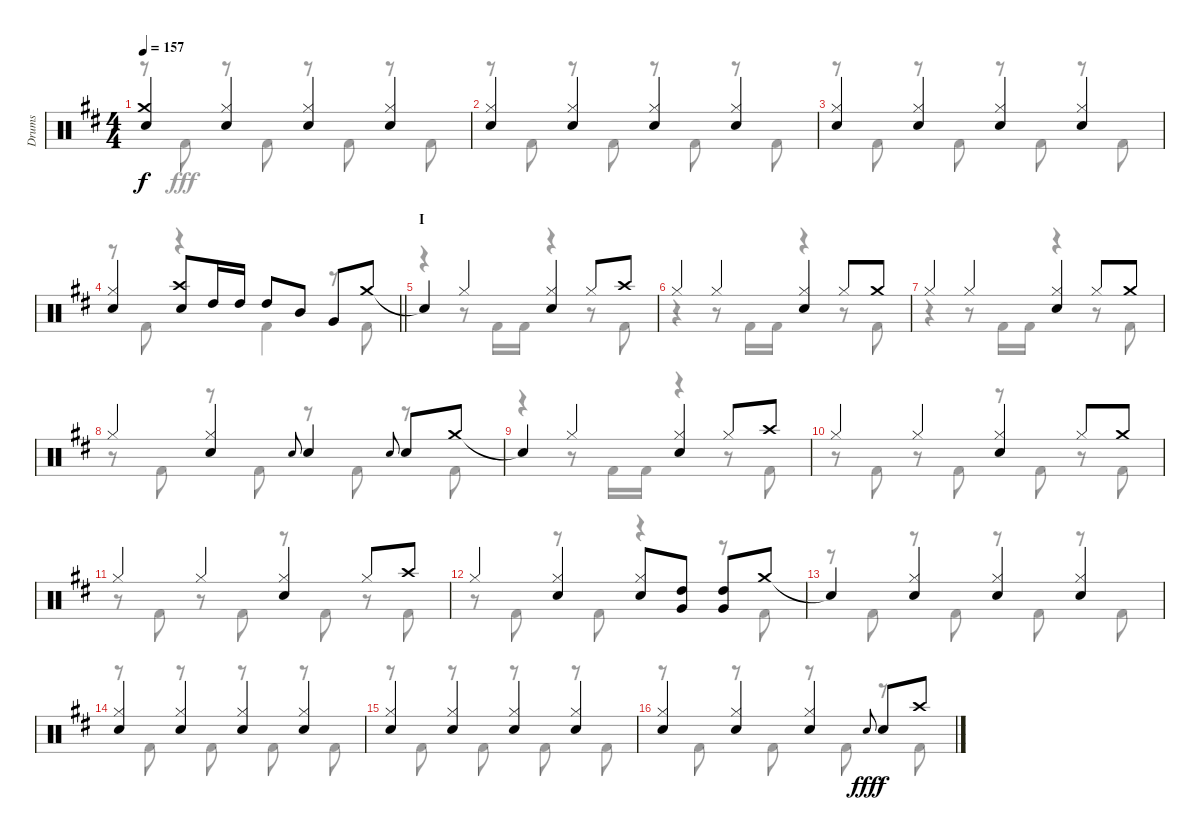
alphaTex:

\track ("Drums" "Drums") {instrument percussion}
\staff {score}
\articulation defaults
\voice
\ts (4 4)
\tempo 157
\clef neutral
\ks d
("Crash medium (hit)" "Snare (hit) 2").4{dy f} ("Hi-Hat (closed)" "Snare (hit) 2").4 ("Hi-Hat (closed)" "Snare (hit) 2").4 ("Hi-Hat (closed)" "Snare (hit) 2").4 |
("Hi-Hat (closed)" "Snare (hit) 2").4 ("Hi-Hat (closed)" "Snare (hit) 2").4 ("Hi-Hat (closed)" "Snare (hit) 2").4 ("Hi-Hat (closed)" "Snare (hit) 2").4 |
("Hi-Hat (closed)" "Snare (hit) 2").4 ("Hi-Hat (closed)" "Snare (hit) 2").4 ("Hi-Hat (closed)" "Snare (hit) 2").4 ("Hi-Hat (closed)" "Snare (hit) 2").4 |
\barLineRight lightlight
("Hi-Hat (closed)" "Snare (hit) 2").4 ("Crash high (hit)" "Snare (hit) 2").8 "High Tom (hit)".16 "High Tom (hit)".16 "High Tom (hit)".8 "Mid Tom (hit)".8 "Very Low Tom (hit)".8 "Crash medium (hit)".8 |
\section ("" "I")
"Snare (hit)"{t}.4 "Hi-Hat (closed)".4 ("Hi-Hat (closed)" "Snare (hit) 2").4 "Hi-Hat (closed)".8 "Crash high (hit)".8 |
"Hi-Hat (closed)".4 "Hi-Hat (closed)".4 ("Hi-Hat (closed)" "Snare (hit) 2").4 "Hi-Hat (closed)".8 "Crash medium (hit)".8 |
"Hi-Hat (closed)".4 "Hi-Hat (closed)".4 ("Hi-Hat (closed)" "Snare (hit) 2").4 "Hi-Hat (closed)".8 "Crash medium (hit)".8 |
"Hi-Hat (closed)".4 ("Hi-Hat (closed)" "Snare (hit) 2").4 "Snare (hit) 2".8{gr onbeat} "Snare (hit) 2".4 "Snare (hit) 2".8{gr onbeat} "Snare (hit) 2".8 "Crash medium (hit)".8 |
"Snare (hit)"{t}.4 "Hi-Hat (closed)".4 ("Hi-Hat (closed)" "Snare (hit) 2").4 "Hi-Hat (closed)".8 "Crash high (hit)".8 |
"Hi-Hat (closed)".4 "Hi-Hat (closed)".4 ("Hi-Hat (closed)" "Snare (hit) 2").4 "Hi-Hat (closed)".8 "Crash medium (hit)".8 |
"Hi-Hat (closed)".4 "Hi-Hat (closed)".4 ("Hi-Hat (closed)" "Snare (hit) 2").4 "Hi-Hat (closed)".8 "Crash high (hit)".8 |
"Hi-Hat (closed)".4 ("Hi-Hat (closed)" "Snare (hit) 2").4 ("Hi-Hat (closed)" "Snare (hit) 2").8 ("High Tom (hit)" "Very Low Tom (hit)").8 ("High Tom (hit)" "Very Low Tom (hit)").8 "Crash medium (hit)".8 |
"Snare (hit)"{t}.4 ("Hi-Hat (closed)" "Snare (hit) 2").4 ("Hi-Hat (closed)" "Snare (hit) 2").4 ("Hi-Hat (closed)" "Snare (hit) 2").4 |
("Hi-Hat (closed)" "Snare (hit) 2").4 ("Hi-Hat (closed)" "Snare (hit) 2").4 ("Hi-Hat (closed)" "Snare (hit) 2").4 ("Hi-Hat (closed)" "Snare (hit) 2").4 |
("Hi-Hat (closed)" "Snare (hit) 2").4 ("Hi-Hat (closed)" "Snare (hit) 2").4 ("Hi-Hat (closed)" "Snare (hit) 2").4 ("Hi-Hat (closed)" "Snare (hit) 2").4 |
("Hi-Hat (closed)" "Snare (hit) 2").4 ("Hi-Hat (closed)" "Snare (hit) 2").4 ("Hi-Hat (closed)" "Snare (hit) 2").4 "Snare (hit) 2".8{gr onbeat dy fff} "Snare (hit) 2".8{dy f} "Crash high (hit)".8
\voice
\clef neutral
\ottava regular
\simile none
\ks d
r.8{dy fff} "Kick (hit) 2".8 r.8 "Kick (hit) 2".8 r.8 "Kick (hit) 2".8 r.8 "Kick (hit) 2".8 |
r.8 "Kick (hit) 2".8 r.8 "Kick (hit) 2".8 r.8 "Kick (hit) 2".8 r.8 "Kick (hit) 2".8 |
r.8 "Kick (hit) 2".8 r.8 "Kick (hit) 2".8 r.8 "Kick (hit) 2".8 r.8 "Kick (hit) 2".8 |
\barLineRight lightlight
r.8 "Kick (hit) 2".8 r.4 "Kick (hit) 2".4 r.8 "Kick (hit) 2".8 |
r.4 r.8 "Kick (hit) 2".16 "Kick (hit) 2".16 r.4 r.8 "Kick (hit) 2".8 |
r.4 r.8 "Kick (hit) 2".16 "Kick (hit) 2".16 r.4 r.8 "Kick (hit) 2".8 |
r.4 r.8 "Kick (hit) 2".16 "Kick (hit) 2".16 r.4 r.8 "Kick (hit) 2".8 |
r.8 "Kick (hit) 2".8 r.8 "Kick (hit) 2".8 r.8 "Kick (hit) 2".8 r.8 "Kick (hit) 2".8 |
r.4 r.8 "Kick (hit) 2".16 "Kick (hit) 2".16 r.4 r.8 "Kick (hit) 2".8 |
r.8 "Kick (hit) 2".8 r.8 "Kick (hit) 2".8 r.8 "Kick (hit) 2".8 r.8 "Kick (hit) 2".8 |
r.8 "Kick (hit) 2".8 r.8 "Kick (hit) 2".8 r.8 "Kick (hit) 2".8 r.8 "Kick (hit) 2".8 |
r.8 "Kick (hit) 2".8 r.8 "Kick (hit) 2".8 r.4 r.8 "Kick (hit) 2".8 |
r.8 "Kick (hit) 2".8 r.8 "Kick (hit) 2".8 r.8 "Kick (hit) 2".8 r.8 "Kick (hit) 2".8 |
r.8 "Kick (hit) 2".8 r.8 "Kick (hit) 2".8 r.8 "Kick (hit) 2".8 r.8 "Kick (hit) 2".8 |
r.8 "Kick (hit) 2".8 r.8 "Kick (hit) 2".8 r.8 "Kick (hit) 2".8 r.8 "Kick (hit) 2".8 |
r.8 "Kick (hit) 2".8 r.8 "Kick (hit) 2".8 r.8 "Kick (hit) 2".8 r.8 "Kick (hit) 2".8
